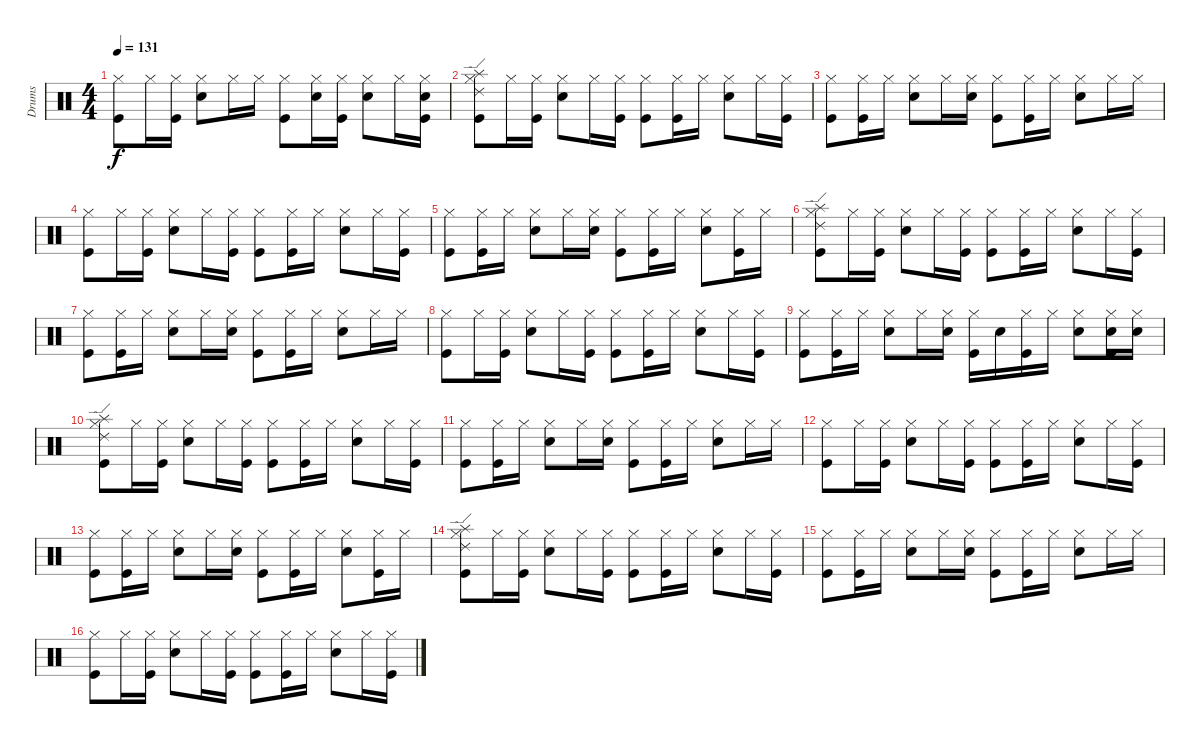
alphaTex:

\track ("Drums" "Drums") {instrument percussion}
\staff {score}
\articulation defaults
\ts (4 4)
\tempo 131
\clef neutral
\ks c
("Hi-Hat (closed)" "Kick (hit)").8{dy f} "Hi-Hat (closed)".16 ("Hi-Hat (closed)" "Kick (hit)").16 ("Hi-Hat (closed)" "Electric Snare (hit)").8 "Hi-Hat (closed)".16 "Hi-Hat (closed)".16 ("Hi-Hat (closed)" "Kick (hit)").8 ("Hi-Hat (closed)" "Electric Snare (hit)").16 ("Hi-Hat (closed)" "Kick (hit)").16 ("Hi-Hat (closed)" "Electric Snare (hit)").8 "Hi-Hat (closed)".16 ("Hi-Hat (closed)" "Electric Snare (hit)" "Kick (hit)").16 |
("Hi-Hat (closed)" "Splash (hit)" "Ride (edge) 2" "Kick (hit)").8 "Hi-Hat (closed)".16 ("Hi-Hat (closed)" "Kick (hit)").16 ("Hi-Hat (closed)" "Electric Snare (hit)").8 "Hi-Hat (closed)".16 ("Hi-Hat (closed)" "Kick (hit)").16 ("Hi-Hat (closed)" "Kick (hit)").8 ("Hi-Hat (closed)" "Kick (hit)").16 "Hi-Hat (closed)".16 ("Hi-Hat (closed)" "Electric Snare (hit)").8 "Hi-Hat (closed)".16 ("Hi-Hat (closed)" "Kick (hit)").16 |
("Hi-Hat (closed)" "Kick (hit)").8 ("Hi-Hat (closed)" "Kick (hit)").16 "Hi-Hat (closed)".16 ("Hi-Hat (closed)" "Electric Snare (hit)").8 "Hi-Hat (closed)".16 ("Hi-Hat (closed)" "Electric Snare (hit)").16 ("Hi-Hat (closed)" "Kick (hit)").8 ("Hi-Hat (closed)" "Kick (hit)").16 "Hi-Hat (closed)".16 ("Hi-Hat (closed)" "Electric Snare (hit)").8 "Hi-Hat (closed)".16 "Hi-Hat (closed)".16 |
("Hi-Hat (closed)" "Kick (hit)").8 "Hi-Hat (closed)".16 ("Hi-Hat (closed)" "Kick (hit)").16 ("Hi-Hat (closed)" "Electric Snare (hit)").8 "Hi-Hat (closed)".16 ("Hi-Hat (closed)" "Kick (hit)").16 ("Hi-Hat (closed)" "Kick (hit)").8 ("Hi-Hat (closed)" "Kick (hit)").16 "Hi-Hat (closed)".16 ("Hi-Hat (closed)" "Electric Snare (hit)").8 "Hi-Hat (closed)".16 ("Hi-Hat (closed)" "Kick (hit)").16 |
("Hi-Hat (closed)" "Kick (hit)").8 ("Hi-Hat (closed)" "Kick (hit)").16 "Hi-Hat (closed)".16 ("Hi-Hat (closed)" "Electric Snare (hit)").8 "Hi-Hat (closed)".16 ("Hi-Hat (closed)" "Electric Snare (hit)").16 ("Hi-Hat (closed)" "Kick (hit)").8 ("Hi-Hat (closed)" "Kick (hit)").16 "Hi-Hat (closed)".16 ("Hi-Hat (closed)" "Electric Snare (hit)").8 ("Hi-Hat (closed)" "Kick (hit)").16 "Hi-Hat (closed)".16 |
("Hi-Hat (closed)" "Splash (hit)" "Ride (edge) 2" "Kick (hit)").8 "Hi-Hat (closed)".16 ("Hi-Hat (closed)" "Kick (hit)").16 ("Hi-Hat (closed)" "Electric Snare (hit)").8 "Hi-Hat (closed)".16 ("Hi-Hat (closed)" "Kick (hit)").16 ("Hi-Hat (closed)" "Kick (hit)").8 ("Hi-Hat (closed)" "Kick (hit)").16 "Hi-Hat (closed)".16 ("Hi-Hat (closed)" "Electric Snare (hit)").8 "Hi-Hat (closed)".16 ("Hi-Hat (closed)" "Kick (hit)").16 |
("Hi-Hat (closed)" "Kick (hit)").8 ("Hi-Hat (closed)" "Kick (hit)").16 "Hi-Hat (closed)".16 ("Hi-Hat (closed)" "Electric Snare (hit)").8 "Hi-Hat (closed)".16 ("Hi-Hat (closed)" "Electric Snare (hit)").16 ("Hi-Hat (closed)" "Kick (hit)").8 ("Hi-Hat (closed)" "Kick (hit)").16 "Hi-Hat (closed)".16 ("Hi-Hat (closed)" "Electric Snare (hit)").8 "Hi-Hat (closed)".16 "Hi-Hat (closed)".16 |
("Hi-Hat (closed)" "Kick (hit)").8 "Hi-Hat (closed)".16 ("Hi-Hat (closed)" "Kick (hit)").16 ("Hi-Hat (closed)" "Electric Snare (hit)").8 "Hi-Hat (closed)".16 ("Hi-Hat (closed)" "Kick (hit)").16 ("Hi-Hat (closed)" "Kick (hit)").8 ("Hi-Hat (closed)" "Kick (hit)").16 "Hi-Hat (closed)".16 ("Hi-Hat (closed)" "Electric Snare (hit)").8 "Hi-Hat (closed)".16 ("Hi-Hat (closed)" "Kick (hit)").16 |
("Hi-Hat (closed)" "Kick (hit)").8 ("Hi-Hat (closed)" "Kick (hit)").16 "Hi-Hat (closed)".16 ("Hi-Hat (closed)" "Electric Snare (hit)").8 "Hi-Hat (closed)".16 ("Hi-Hat (closed)" "Electric Snare (hit)").16 ("Hi-Hat (closed)" "Kick (hit)").16 "Electric Snare (hit)".16 ("Hi-Hat (closed)" "Kick (hit)").16 "Hi-Hat (closed)".16 ("Hi-Hat (closed)" "Electric Snare (hit)").8 ("Hi-Hat (closed)" "Electric Snare (hit)" "Kick (hit)").16 ("Hi-Hat (closed)" "Electric Snare (hit)").16 |
("Hi-Hat (closed)" "Splash (hit)" "Ride (edge) 2" "Kick (hit)").8 "Hi-Hat (closed)".16 ("Hi-Hat (closed)" "Kick (hit)").16 ("Hi-Hat (closed)" "Electric Snare (hit)").8 "Hi-Hat (closed)".16 ("Hi-Hat (closed)" "Kick (hit)").16 ("Hi-Hat (closed)" "Kick (hit)").8 ("Hi-Hat (closed)" "Kick (hit)").16 "Hi-Hat (closed)".16 ("Hi-Hat (closed)" "Electric Snare (hit)").8 "Hi-Hat (closed)".16 ("Hi-Hat (closed)" "Kick (hit)").16 |
("Hi-Hat (closed)" "Kick (hit)").8 ("Hi-Hat (closed)" "Kick (hit)").16 "Hi-Hat (closed)".16 ("Hi-Hat (closed)" "Electric Snare (hit)").8 "Hi-Hat (closed)".16 ("Hi-Hat (closed)" "Electric Snare (hit)").16 ("Hi-Hat (closed)" "Kick (hit)").8 ("Hi-Hat (closed)" "Kick (hit)").16 "Hi-Hat (closed)".16 ("Hi-Hat (closed)" "Electric Snare (hit)").8 "Hi-Hat (closed)".16 "Hi-Hat (closed)".16 |
("Hi-Hat (closed)" "Kick (hit)").8 "Hi-Hat (closed)".16 ("Hi-Hat (closed)" "Kick (hit)").16 ("Hi-Hat (closed)" "Electric Snare (hit)").8 "Hi-Hat (closed)".16 ("Hi-Hat (closed)" "Kick (hit)").16 ("Hi-Hat (closed)" "Kick (hit)").8 ("Hi-Hat (closed)" "Kick (hit)").16 "Hi-Hat (closed)".16 ("Hi-Hat (closed)" "Electric Snare (hit)").8 "Hi-Hat (closed)".16 ("Hi-Hat (closed)" "Kick (hit)").16 |
("Hi-Hat (closed)" "Kick (hit)").8 ("Hi-Hat (closed)" "Kick (hit)").16 "Hi-Hat (closed)".16 ("Hi-Hat (closed)" "Electric Snare (hit)").8 "Hi-Hat (closed)".16 ("Hi-Hat (closed)" "Electric Snare (hit)").16 ("Hi-Hat (closed)" "Kick (hit)").8 ("Hi-Hat (closed)" "Kick (hit)").16 "Hi-Hat (closed)".16 ("Hi-Hat (closed)" "Electric Snare (hit)").8 ("Hi-Hat (closed)" "Kick (hit)").16 "Hi-Hat (closed)".16 |
("Hi-Hat (closed)" "Splash (hit)" "Ride (edge) 2" "Kick (hit)").8 "Hi-Hat (closed)".16 ("Hi-Hat (closed)" "Kick (hit)").16 ("Hi-Hat (closed)" "Electric Snare (hit)").8 "Hi-Hat (closed)".16 ("Hi-Hat (closed)" "Kick (hit)").16 ("Hi-Hat (closed)" "Kick (hit)").8 ("Hi-Hat (closed)" "Kick (hit)").16 "Hi-Hat (closed)".16 ("Hi-Hat (closed)" "Electric Snare (hit)").8 "Hi-Hat (closed)".16 ("Hi-Hat (closed)" "Kick (hit)").16 |
("Hi-Hat (closed)" "Kick (hit)").8 ("Hi-Hat (closed)" "Kick (hit)").16 "Hi-Hat (closed)".16 ("Hi-Hat (closed)" "Electric Snare (hit)").8 "Hi-Hat (closed)".16 ("Hi-Hat (closed)" "Electric Snare (hit)").16 ("Hi-Hat (closed)" "Kick (hit)").8 ("Hi-Hat (closed)" "Kick (hit)").16 "Hi-Hat (closed)".16 ("Hi-Hat (closed)" "Electric Snare (hit)").8 "Hi-Hat (closed)".16 "Hi-Hat (closed)".16 |
("Hi-Hat (closed)" "Kick (hit)").8 "Hi-Hat (closed)".16 ("Hi-Hat (closed)" "Kick (hit)").16 ("Hi-Hat (closed)" "Electric Snare (hit)").8 "Hi-Hat (closed)".16 ("Hi-Hat (closed)" "Kick (hit)").16 ("Hi-Hat (closed)" "Kick (hit)").8 ("Hi-Hat (closed)" "Kick (hit)").16 "Hi-Hat (closed)".16 ("Hi-Hat (closed)" "Electric Snare (hit)").8 "Hi-Hat (closed)".16 ("Hi-Hat (closed)" "Kick (hit)").16
